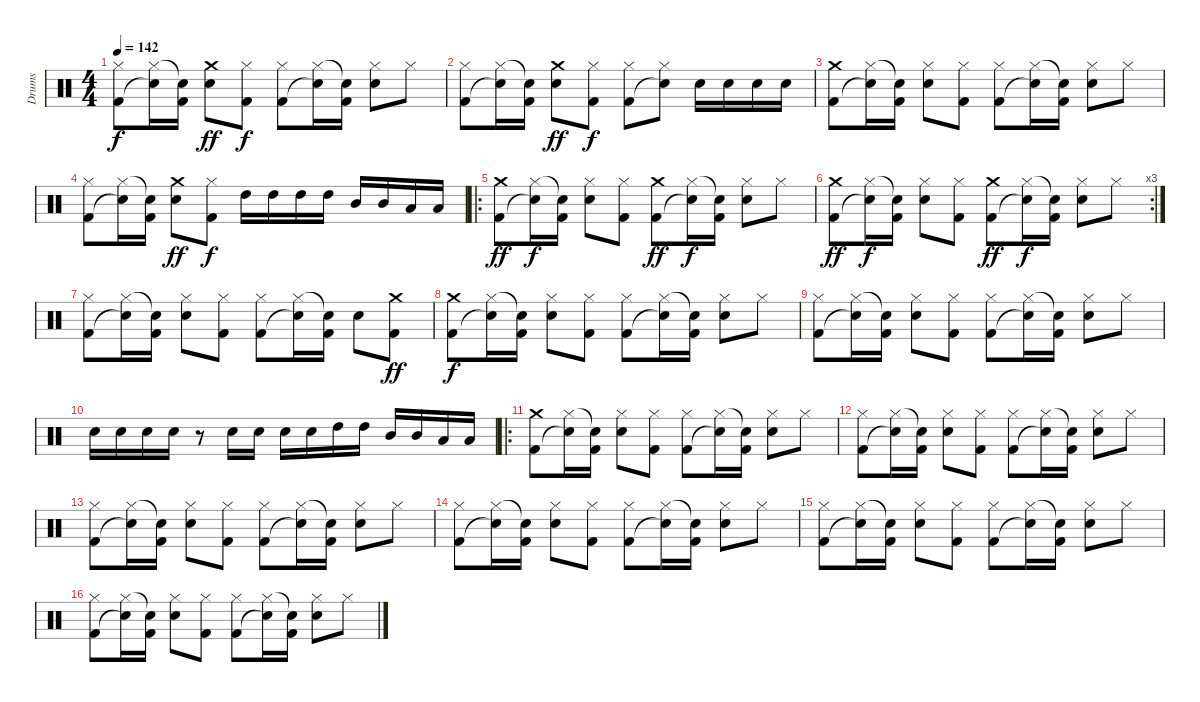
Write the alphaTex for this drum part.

\track ("Drums" "Drums") {instrument percussion}
\staff {score}
\articulation defaults
\ts (4 4)
\tempo 142
\clef neutral
\ks c
("Hi-Hat (closed)" "Kick (hit) 2").8{dy f} ("Hi-Hat (closed)" "Snare (hit)"{t}).16 ("Snare (hit)"{t} "Kick (hit) 2").16 ("Crash medium (hit)" "Snare (hit) 2").8{dy ff} ("Hi-Hat (closed)" "Kick (hit) 2").8{dy f} ("Hi-Hat (closed)" "Kick (hit) 2").8 ("Hi-Hat (closed)" "Snare (hit)"{t}).16 ("Snare (hit)"{t} "Kick (hit) 2").16 ("Hi-Hat (closed)" "Snare (hit) 2").8 "Hi-Hat (closed)".8 |
("Hi-Hat (closed)" "Kick (hit) 2").8 ("Hi-Hat (closed)" "Snare (hit)"{t}).16 ("Snare (hit)"{t} "Kick (hit) 2").16 ("Crash medium (hit)" "Snare (hit) 2").8{dy ff} ("Hi-Hat (closed)" "Kick (hit) 2").8{dy f} ("Hi-Hat (closed)" "Kick (hit) 2").8 ("Hi-Hat (closed)" "Snare (hit)"{t}).8 "Snare (hit) 2".16 "Snare (hit) 2".16 "Snare (hit) 2".16 "Snare (hit) 2".16 |
("Crash medium (hit)" "Kick (hit) 2").8 ("Hi-Hat (closed)" "Snare (hit)"{t}).16 ("Snare (hit)"{t} "Kick (hit) 2").16 ("Hi-Hat (closed)" "Snare (hit) 2").8 ("Hi-Hat (closed)" "Kick (hit) 2").8 ("Hi-Hat (closed)" "Kick (hit) 2").8 ("Hi-Hat (closed)" "Snare (hit)"{t}).16 ("Snare (hit)"{t} "Kick (hit) 2").16 ("Hi-Hat (closed)" "Snare (hit) 2").8 "Hi-Hat (closed)".8 |
("Hi-Hat (closed)" "Kick (hit) 2").8 ("Hi-Hat (closed)" "Snare (hit)"{t}).16 ("Snare (hit)"{t} "Kick (hit) 2").16 ("Crash medium (hit)" "Snare (hit) 2").8{dy ff} ("Hi-Hat (closed)" "Kick (hit) 2").8{dy f} "High Tom (hit)".16 "High Tom (hit)".16 "High Tom (hit)".16 "High Tom (hit)".16 "Mid Tom (hit)".16 "Mid Tom (hit)".16 "Low Tom (hit)".16 "Low Tom (hit)".16 |
\ro
("Crash medium (hit)" "Kick (hit) 2").8{dy ff} ("Hi-Hat (closed)" "Snare (hit)"{t}).16{dy f} ("Snare (hit)"{t} "Kick (hit) 2").16 ("Hi-Hat (closed)" "Snare (hit) 2").8 ("Hi-Hat (closed)" "Kick (hit) 2").8 ("Crash medium (hit)" "Kick (hit) 2").8{dy ff} ("Hi-Hat (closed)" "Snare (hit)"{t}).16{dy f} ("Snare (hit)"{t} "Kick (hit) 2").16 ("Hi-Hat (closed)" "Snare (hit) 2").8 "Hi-Hat (closed)".8 |
\rc 3
("Crash medium (hit)" "Kick (hit) 2").8{dy ff} ("Hi-Hat (closed)" "Snare (hit)"{t}).16{dy f} ("Snare (hit)"{t} "Kick (hit) 2").16 ("Hi-Hat (closed)" "Snare (hit) 2").8 ("Hi-Hat (closed)" "Kick (hit) 2").8 ("Crash medium (hit)" "Kick (hit) 2").8{dy ff} ("Hi-Hat (closed)" "Snare (hit)"{t}).16{dy f} ("Snare (hit)"{t} "Kick (hit) 2").16 ("Hi-Hat (closed)" "Snare (hit) 2").8 "Hi-Hat (closed)".8 |
("Hi-Hat (closed)" "Kick (hit) 2").8 ("Hi-Hat (closed)" "Snare (hit)"{t}).16 ("Snare (hit)"{t} "Kick (hit) 2").16 ("Hi-Hat (closed)" "Snare (hit) 2").8 ("Hi-Hat (closed)" "Kick (hit) 2").8 ("Hi-Hat (closed)" "Kick (hit) 2").8 ("Hi-Hat (closed)" "Snare (hit)"{t}).16 ("Snare (hit)"{t} "Kick (hit) 2").16 "Snare (hit) 2".8 ("Crash medium (hit)" "Kick (hit) 2").8{dy ff} |
("Crash medium (hit)" "Kick (hit) 2").8{dy f} ("Hi-Hat (closed)" "Snare (hit)"{t}).16 ("Snare (hit)"{t} "Kick (hit) 2").16 ("Hi-Hat (closed)" "Snare (hit) 2").8 ("Hi-Hat (closed)" "Kick (hit) 2").8 ("Hi-Hat (closed)" "Kick (hit) 2").8 ("Hi-Hat (closed)" "Snare (hit)"{t}).16 ("Snare (hit)"{t} "Kick (hit) 2").16 ("Hi-Hat (closed)" "Snare (hit) 2").8 "Hi-Hat (closed)".8 |
("Hi-Hat (closed)" "Kick (hit) 2").8 ("Hi-Hat (closed)" "Snare (hit)"{t}).16 ("Snare (hit)"{t} "Kick (hit) 2").16 ("Hi-Hat (closed)" "Snare (hit) 2").8 ("Hi-Hat (closed)" "Kick (hit) 2").8 ("Hi-Hat (closed)" "Kick (hit) 2").8 ("Hi-Hat (closed)" "Snare (hit)"{t}).16 ("Snare (hit)"{t} "Kick (hit) 2").16 ("Hi-Hat (closed)" "Snare (hit) 2").8 "Hi-Hat (closed)".8 |
"Snare (hit) 2".16 "Snare (hit) 2".16 "Snare (hit) 2".16 "Snare (hit) 2".16 r.8 "Snare (hit) 2".16 "Snare (hit) 2".16 "Snare (hit) 2".16 "Snare (hit) 2".16 "High Tom (hit)".16 "High Tom (hit)".16 "Mid Tom (hit)".16 "Mid Tom (hit)".16 "Low Tom (hit)".16 "Low Tom (hit)".16 |
\ro
("Crash medium (hit)" "Kick (hit) 2").8 ("Hi-Hat (closed)" "Snare (hit)"{t}).16 ("Snare (hit)"{t} "Kick (hit) 2").16 ("Hi-Hat (closed)" "Snare (hit) 2").8 ("Hi-Hat (closed)" "Kick (hit) 2").8 ("Hi-Hat (closed)" "Kick (hit) 2").8 ("Hi-Hat (closed)" "Snare (hit)"{t}).16 ("Snare (hit)"{t} "Kick (hit) 2").16 ("Hi-Hat (closed)" "Snare (hit) 2").8 "Hi-Hat (closed)".8 |
("Hi-Hat (closed)" "Kick (hit) 2").8 ("Hi-Hat (closed)" "Snare (hit)"{t}).16 ("Snare (hit)"{t} "Kick (hit) 2").16 ("Hi-Hat (closed)" "Snare (hit) 2").8 ("Hi-Hat (closed)" "Kick (hit) 2").8 ("Hi-Hat (closed)" "Kick (hit) 2").8 ("Hi-Hat (closed)" "Snare (hit)"{t}).16 ("Snare (hit)"{t} "Kick (hit) 2").16 ("Hi-Hat (closed)" "Snare (hit) 2").8 "Hi-Hat (closed)".8 |
("Hi-Hat (closed)" "Kick (hit) 2").8 ("Hi-Hat (closed)" "Snare (hit)"{t}).16 ("Snare (hit)"{t} "Kick (hit) 2").16 ("Hi-Hat (closed)" "Snare (hit) 2").8 ("Hi-Hat (closed)" "Kick (hit) 2").8 ("Hi-Hat (closed)" "Kick (hit) 2").8 ("Hi-Hat (closed)" "Snare (hit)"{t}).16 ("Snare (hit)"{t} "Kick (hit) 2").16 ("Hi-Hat (closed)" "Snare (hit) 2").8 "Hi-Hat (closed)".8 |
("Hi-Hat (closed)" "Kick (hit) 2").8 ("Hi-Hat (closed)" "Snare (hit)"{t}).16 ("Snare (hit)"{t} "Kick (hit) 2").16 ("Hi-Hat (closed)" "Snare (hit) 2").8 ("Hi-Hat (closed)" "Kick (hit) 2").8 ("Hi-Hat (closed)" "Kick (hit) 2").8 ("Hi-Hat (closed)" "Snare (hit)"{t}).16 ("Snare (hit)"{t} "Kick (hit) 2").16 ("Hi-Hat (closed)" "Snare (hit) 2").8 "Hi-Hat (closed)".8 |
("Hi-Hat (closed)" "Kick (hit) 2").8 ("Hi-Hat (closed)" "Snare (hit)"{t}).16 ("Snare (hit)"{t} "Kick (hit) 2").16 ("Hi-Hat (closed)" "Snare (hit) 2").8 ("Hi-Hat (closed)" "Kick (hit) 2").8 ("Hi-Hat (closed)" "Kick (hit) 2").8 ("Hi-Hat (closed)" "Snare (hit)"{t}).16 ("Snare (hit)"{t} "Kick (hit) 2").16 ("Hi-Hat (closed)" "Snare (hit) 2").8 "Hi-Hat (closed)".8 |
("Hi-Hat (closed)" "Kick (hit) 2").8 ("Hi-Hat (closed)" "Snare (hit)"{t}).16 ("Snare (hit)"{t} "Kick (hit) 2").16 ("Hi-Hat (closed)" "Snare (hit) 2").8 ("Hi-Hat (closed)" "Kick (hit) 2").8 ("Hi-Hat (closed)" "Kick (hit) 2").8 ("Hi-Hat (closed)" "Snare (hit)"{t}).16 ("Snare (hit)"{t} "Kick (hit) 2").16 ("Hi-Hat (closed)" "Snare (hit) 2").8 "Hi-Hat (closed)".8
